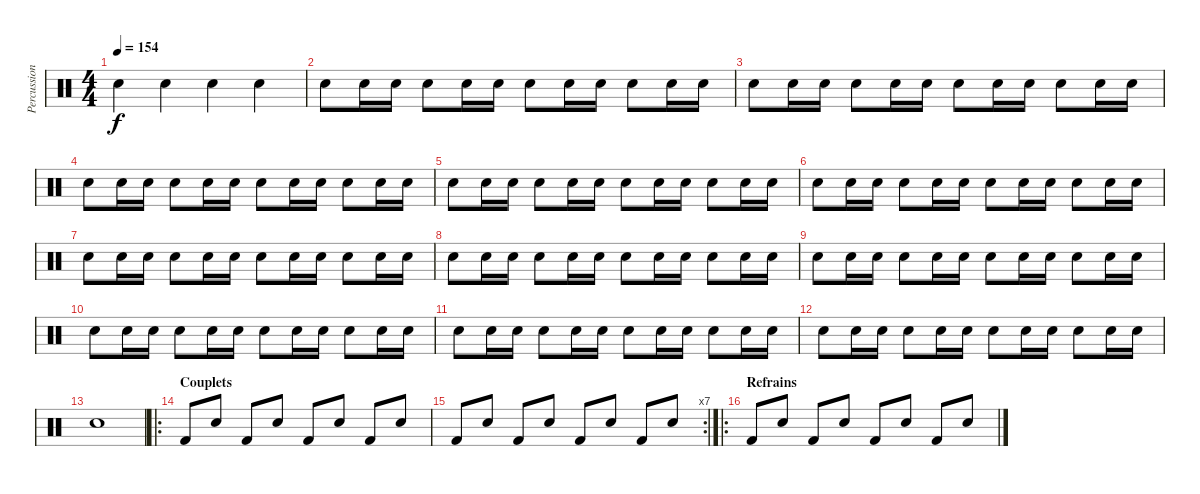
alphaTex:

\track ("Percussions" "Percussion") {instrument percussion}
\staff {score}
\articulation defaults
\ts (4 4)
\tempo 154
\clef neutral
\ks c "Electric Snare (hit)".4{dy f} "Electric Snare (hit)".4 "Electric Snare (hit)".4 "Electric Snare (hit)".4
|
"Electric Snare (hit)".8 "Electric Snare (hit)".16 "Electric Snare (hit)".16 "Electric Snare (hit)".8 "Electric Snare (hit)".16 "Electric Snare (hit)".16 "Electric Snare (hit)".8 "Electric Snare (hit)".16 "Electric Snare (hit)".16 "Electric Snare (hit)".8 "Electric Snare (hit)".16 "Electric Snare (hit)".16 |
"Electric Snare (hit)".8 "Electric Snare (hit)".16 "Electric Snare (hit)".16 "Electric Snare (hit)".8 "Electric Snare (hit)".16 "Electric Snare (hit)".16 "Electric Snare (hit)".8 "Electric Snare (hit)".16 "Electric Snare (hit)".16 "Electric Snare (hit)".8 "Electric Snare (hit)".16 "Electric Snare (hit)".16 |
"Electric Snare (hit)".8 "Electric Snare (hit)".16 "Electric Snare (hit)".16 "Electric Snare (hit)".8 "Electric Snare (hit)".16 "Electric Snare (hit)".16 "Electric Snare (hit)".8 "Electric Snare (hit)".16 "Electric Snare (hit)".16 "Electric Snare (hit)".8 "Electric Snare (hit)".16 "Electric Snare (hit)".16 |
"Electric Snare (hit)".8 "Electric Snare (hit)".16 "Electric Snare (hit)".16 "Electric Snare (hit)".8 "Electric Snare (hit)".16 "Electric Snare (hit)".16 "Electric Snare (hit)".8 "Electric Snare (hit)".16 "Electric Snare (hit)".16 "Electric Snare (hit)".8 "Electric Snare (hit)".16 "Electric Snare (hit)".16 |
"Electric Snare (hit)".8 "Electric Snare (hit)".16 "Electric Snare (hit)".16 "Electric Snare (hit)".8 "Electric Snare (hit)".16 "Electric Snare (hit)".16 "Electric Snare (hit)".8 "Electric Snare (hit)".16 "Electric Snare (hit)".16 "Electric Snare (hit)".8 "Electric Snare (hit)".16 "Electric Snare (hit)".16 |
"Electric Snare (hit)".8 "Electric Snare (hit)".16 "Electric Snare (hit)".16 "Electric Snare (hit)".8 "Electric Snare (hit)".16 "Electric Snare (hit)".16 "Electric Snare (hit)".8 "Electric Snare (hit)".16 "Electric Snare (hit)".16 "Electric Snare (hit)".8 "Electric Snare (hit)".16 "Electric Snare (hit)".16 |
"Electric Snare (hit)".8 "Electric Snare (hit)".16 "Electric Snare (hit)".16 "Electric Snare (hit)".8 "Electric Snare (hit)".16 "Electric Snare (hit)".16 "Electric Snare (hit)".8 "Electric Snare (hit)".16 "Electric Snare (hit)".16 "Electric Snare (hit)".8 "Electric Snare (hit)".16 "Electric Snare (hit)".16 |
"Electric Snare (hit)".8 "Electric Snare (hit)".16 "Electric Snare (hit)".16 "Electric Snare (hit)".8 "Electric Snare (hit)".16 "Electric Snare (hit)".16 "Electric Snare (hit)".8 "Electric Snare (hit)".16 "Electric Snare (hit)".16 "Electric Snare (hit)".8 "Electric Snare (hit)".16 "Electric Snare (hit)".16 |
"Electric Snare (hit)".8 "Electric Snare (hit)".16 "Electric Snare (hit)".16 "Electric Snare (hit)".8 "Electric Snare (hit)".16 "Electric Snare (hit)".16 "Electric Snare (hit)".8 "Electric Snare (hit)".16 "Electric Snare (hit)".16 "Electric Snare (hit)".8 "Electric Snare (hit)".16 "Electric Snare (hit)".16 |
"Electric Snare (hit)".8 "Electric Snare (hit)".16 "Electric Snare (hit)".16 "Electric Snare (hit)".8 "Electric Snare (hit)".16 "Electric Snare (hit)".16 "Electric Snare (hit)".8 "Electric Snare (hit)".16 "Electric Snare (hit)".16 "Electric Snare (hit)".8 "Electric Snare (hit)".16 "Electric Snare (hit)".16 |
"Electric Snare (hit)".8 "Electric Snare (hit)".16 "Electric Snare (hit)".16 "Electric Snare (hit)".8 "Electric Snare (hit)".16 "Electric Snare (hit)".16 "Electric Snare (hit)".8 "Electric Snare (hit)".16 "Electric Snare (hit)".16 "Electric Snare (hit)".8 "Electric Snare (hit)".16 "Electric Snare (hit)".16 |
"Electric Snare (hit)".1 |
\ro
\section ("" "Couplets")
"Kick (hit) 2".8 "Electric Snare (hit)".8 "Kick (hit) 2".8 "Electric Snare (hit)".8 "Kick (hit) 2".8 "Electric Snare (hit)".8 "Kick (hit) 2".8 "Electric Snare (hit)".8 |
\rc 7 "Kick (hit) 2".8 "Electric Snare (hit)".8 "Kick (hit) 2".8 "Electric Snare (hit)".8 "Kick (hit) 2".8 "Electric Snare (hit)".8 "Kick (hit) 2".8 "Electric Snare (hit)".8
|
\ro
\section ("" "Refrains")
"Kick (hit) 2".8 "Electric Snare (hit)".8 "Kick (hit) 2".8 "Electric Snare (hit)".8 "Kick (hit) 2".8 "Electric Snare (hit)".8 "Kick (hit) 2".8 "Electric Snare (hit)".8
